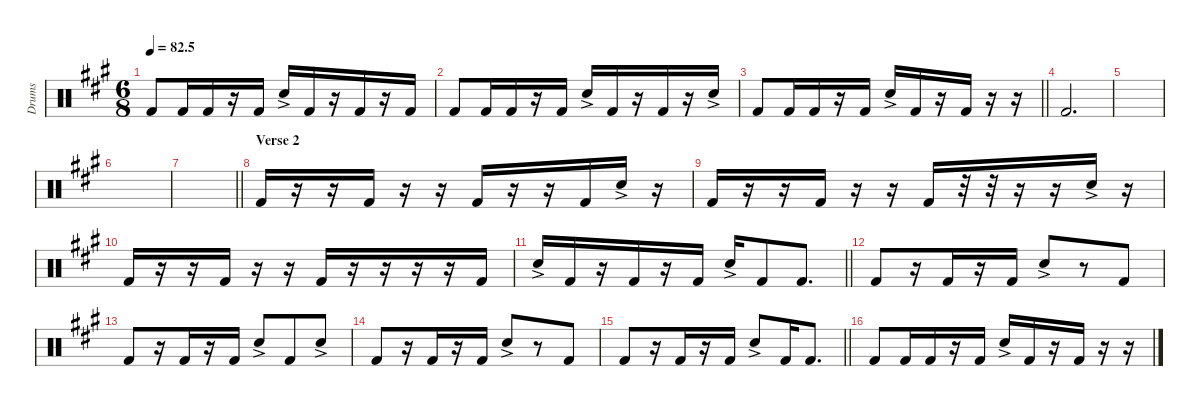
\defaultSystemsLayout 4
\hideDynamics
\bracketExtendMode nobrackets
\otherSystemsTrackNameOrientation horizontal
\track ("F&S" "Drums") {instrument percussion}
\staff {score}
\articulation defaults
\ts (6 8)
\tempo
82.5
\accidentals auto
\clef neutral
\ottava regular
\simile none
\scale
0.333333
\ks a "Kick (hit) 2"{acc forcenatural}.8{dy f} "Kick (hit) 2"{acc forcenatural}.16 "Kick (hit) 2"{acc forcenatural}.16
r.16 "Kick (hit) 2"{acc forcenatural}.16 "Snare (hit) 2"{ac acc forcenatural}.16 "Kick (hit) 2"{acc forcenatural}.16 r.16 "Kick (hit) 2"{acc forcenatural}.16 r.16 "Kick (hit) 2"{acc forcenatural}.16 |
\scale
0.333333 "Kick (hit) 2"{acc forcenatural}.8 "Kick (hit) 2"{acc forcenatural}.16 "Kick (hit) 2"{acc forcenatural}.16 r.16 "Kick (hit) 2"{acc forcenatural}.16 "Snare (hit) 2"{ac acc forcenatural}.16 "Kick (hit) 2"{acc forcenatural}.16 r.16 "Kick (hit) 2"{acc forcenatural}.16 r.16 "Snare (hit) 2"{ac acc forcenatural}.16 |
\scale
0.333333
\barLineRight lightlight "Kick (hit) 2"{acc forcenatural}.8 "Kick (hit) 2"{acc forcenatural}.16 "Kick (hit) 2"{acc forcenatural}.16
r.16 "Kick (hit) 2"{acc forcenatural}.16 "Snare (hit) 2"{ac acc forcenatural}.16 "Kick (hit) 2"{acc forcenatural}.16 r.16 "Kick (hit) 2"{acc forcenatural}.16 r.16 r.16 |
\scale
0.333333 "Kick (hit) 2"{acc forcenatural}.2{d} |
\scale
0.333333 |
\scale
0.333333 |
\scale
0.333333
\barLineRight lightlight
|
\section ("" "Verse 2")
\scale
0.333333 "Kick (hit) 2"{acc forcenatural}.16 r.16 r.16 "Kick (hit) 2"{acc forcenatural}.16 r.16 r.16 "Kick (hit) 2"{acc forcenatural}.16 r.16 r.16 "Kick (hit) 2"{acc forcenatural}.16 "Snare (hit) 2"{ac acc forcenatural}.16 r.16 |
\scale
0.333333 "Kick (hit) 2"{acc forcenatural}.16 r.16 r.16 "Kick (hit) 2"{acc forcenatural}.16 r.16 r.16 "Kick (hit) 2"{acc forcenatural}.16 r.32 r.32 r.16 r.16 "Snare (hit) 2"{ac acc forcenatural}.16 r.16 |
\scale
0.333333 "Kick (hit) 2"{acc forcenatural}.16 r.16 r.16 "Kick (hit) 2"{acc forcenatural}.16 r.16 r.16 "Kick (hit) 2"{acc forcenatural}.16 r.16 r.16 r.16 r.16 "Kick (hit) 2"{acc forcenatural}.16 |
\scale
0.333333
\barLineRight lightlight "Snare (hit) 2"{ac acc forcenatural}.16 "Kick (hit) 2"{acc forcenatural}.16
r.16 "Kick (hit) 2"{acc forcenatural}.16 r.16 "Kick (hit) 2"{acc forcenatural}.16 "Snare (hit) 2"{ac acc forcenatural}.16 "Kick (hit) 2"{acc forcenatural}.8 "Kick (hit) 2"{acc forcenatural}.8{d} |
\scale
0.333333 "Kick (hit) 2"{acc forcenatural}.8 r.16 "Kick (hit) 2"{acc forcenatural}.16 r.16 "Kick (hit) 2"{acc forcenatural}.16 "Snare (hit) 2"{ac acc forcenatural}.8 r.8 "Kick (hit) 2"{acc forcenatural}.8 |
\scale
0.333333 "Kick (hit) 2"{acc forcenatural}.8 r.16 "Kick (hit) 2"{acc forcenatural}.16 r.16 "Kick (hit) 2"{acc forcenatural}.16 "Snare (hit) 2"{ac acc forcenatural}.8 "Kick (hit) 2"{acc forcenatural}.8 "Snare (hit) 2"{ac acc forcenatural}.8 |
\scale
0.333333 "Kick (hit) 2"{acc forcenatural}.8 r.16 "Kick (hit) 2"{acc forcenatural}.16 r.16 "Kick (hit) 2"{acc forcenatural}.16 "Snare (hit) 2"{ac acc forcenatural}.8 r.8 "Kick (hit) 2"{acc forcenatural}.8 |
\scale
0.333333
\barLineRight lightlight "Kick (hit) 2"{acc forcenatural}.8
r.16 "Kick (hit) 2"{acc forcenatural}.16 r.16 "Kick (hit) 2"{acc forcenatural}.16 "Snare (hit) 2"{ac acc forcenatural}.8 "Kick (hit) 2"{acc forcenatural}.16 "Kick (hit) 2"{acc forcenatural}.8{d} |
\scale
0.333333 "Kick (hit) 2"{acc forcenatural}.8 "Kick (hit) 2"{acc forcenatural}.16 "Kick (hit) 2"{acc forcenatural}.16 r.16 "Kick (hit) 2"{acc forcenatural}.16 "Snare (hit) 2"{ac acc forcenatural}.16 "Kick (hit) 2"{acc forcenatural}.16 r.16 "Kick (hit) 2"{acc forcenatural}.16 r.16 r.16
